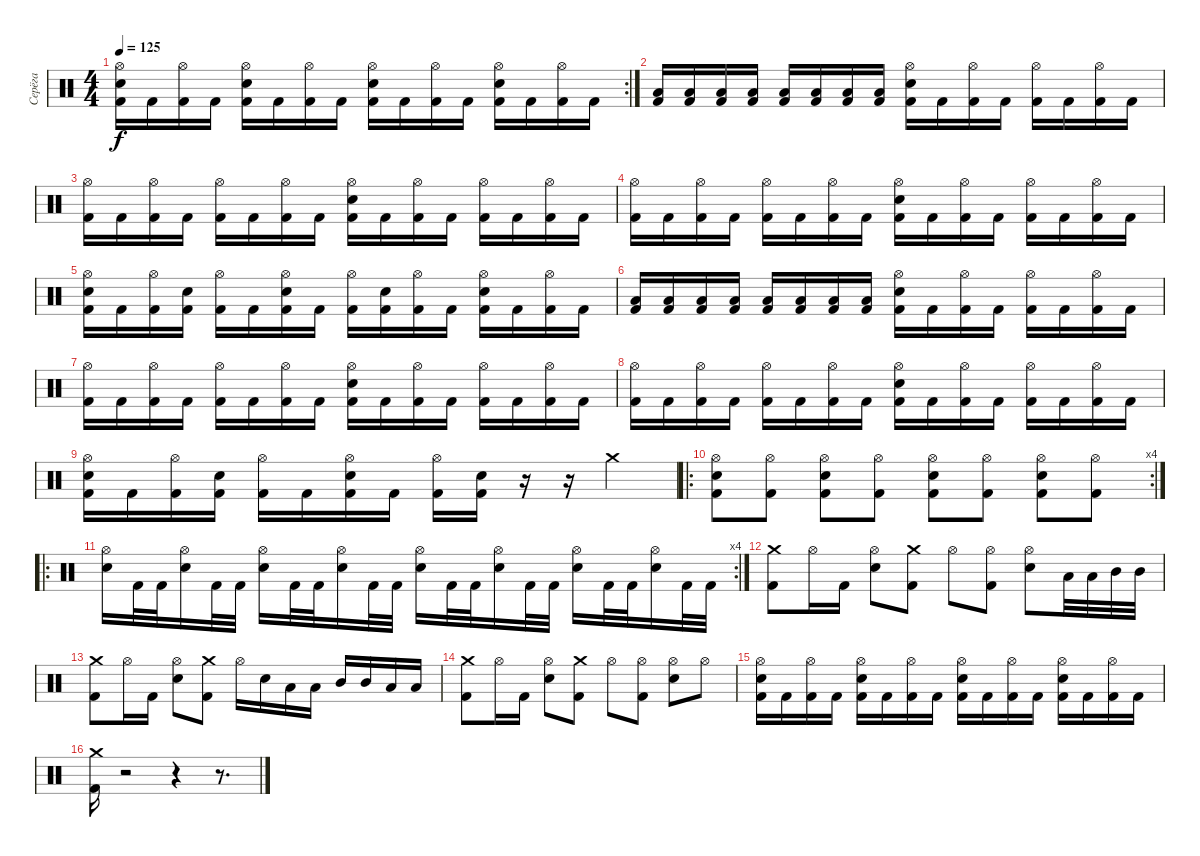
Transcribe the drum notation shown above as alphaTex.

\track ("Серёга" "Серёга") {instrument percussion}
\staff {score}
\articulation defaults
\rc 2
\ts (4 4)
\tempo 125
\clef neutral
\ks c
("Hi-Hat (open)" "Electric Snare (hit)" "Kick (hit) 2").16{dy f} "Kick (hit) 2".16 ("Hi-Hat (open)" "Kick (hit) 2").16 "Kick (hit) 2".16 ("Hi-Hat (open)" "Electric Snare (hit)" "Kick (hit) 2").16 "Kick (hit) 2".16 ("Hi-Hat (open)" "Kick (hit) 2").16 "Kick (hit) 2".16 ("Hi-Hat (open)" "Electric Snare (hit)" "Kick (hit) 2").16 "Kick (hit) 2".16 ("Hi-Hat (open)" "Kick (hit) 2").16 "Kick (hit) 2".16 ("Hi-Hat (open)" "Electric Snare (hit)" "Kick (hit) 2").16 "Kick (hit) 2".16 ("Hi-Hat (open)" "Kick (hit) 2").16 "Kick (hit) 2".16 |
("Kick (hit) 2" "Low Tom (hit)").16 ("Kick (hit) 2" "Low Tom (hit)").16 ("Kick (hit) 2" "Low Tom (hit)").16 ("Kick (hit) 2" "Low Tom (hit)").16 ("Kick (hit) 2" "Low Tom (hit)").16 ("Kick (hit) 2" "Low Tom (hit)").16 ("Kick (hit) 2" "Low Tom (hit)").16 ("Kick (hit) 2" "Low Tom (hit)").16 ("Kick (hit) 2" "Electric Snare (hit)" "Hi-Hat (open)").16 "Kick (hit) 2".16 ("Kick (hit) 2" "Hi-Hat (open)").16 "Kick (hit) 2".16 ("Kick (hit) 2" "Hi-Hat (open)").16 "Kick (hit) 2".16 ("Kick (hit) 2" "Hi-Hat (open)").16 "Kick (hit) 2".16 |
("Kick (hit) 2" "Hi-Hat (open)").16 "Kick (hit) 2".16 ("Kick (hit) 2" "Hi-Hat (open)").16 "Kick (hit) 2".16 ("Kick (hit) 2" "Hi-Hat (open)").16 "Kick (hit) 2".16 ("Kick (hit) 2" "Hi-Hat (open)").16 "Kick (hit) 2".16 ("Kick (hit) 2" "Electric Snare (hit)" "Hi-Hat (open)").16 "Kick (hit) 2".16 ("Kick (hit) 2" "Hi-Hat (open)").16 "Kick (hit) 2".16 ("Kick (hit) 2" "Hi-Hat (open)").16 "Kick (hit) 2".16 ("Kick (hit) 2" "Hi-Hat (open)").16 "Kick (hit) 2".16 |
("Kick (hit) 2" "Hi-Hat (open)").16 "Kick (hit) 2".16 ("Kick (hit) 2" "Hi-Hat (open)").16 "Kick (hit) 2".16 ("Kick (hit) 2" "Hi-Hat (open)").16 "Kick (hit) 2".16 ("Kick (hit) 2" "Hi-Hat (open)").16 "Kick (hit) 2".16 ("Kick (hit) 2" "Electric Snare (hit)" "Hi-Hat (open)").16 "Kick (hit) 2".16 ("Kick (hit) 2" "Hi-Hat (open)").16 "Kick (hit) 2".16 ("Kick (hit) 2" "Hi-Hat (open)").16 "Kick (hit) 2".16 ("Kick (hit) 2" "Hi-Hat (open)").16 "Kick (hit) 2".16 |
("Kick (hit) 2" "Electric Snare (hit)" "Hi-Hat (open)").16 "Kick (hit) 2".16 ("Kick (hit) 2" "Hi-Hat (open)").16 ("Kick (hit) 2" "Electric Snare (hit)").16 ("Kick (hit) 2" "Hi-Hat (open)").16 "Kick (hit) 2".16 ("Kick (hit) 2" "Electric Snare (hit)" "Hi-Hat (open)").16 "Kick (hit) 2".16 ("Kick (hit) 2" "Hi-Hat (open)").16 ("Kick (hit) 2" "Electric Snare (hit)").16 ("Kick (hit) 2" "Hi-Hat (open)").16 "Kick (hit) 2".16 ("Kick (hit) 2" "Electric Snare (hit)" "Hi-Hat (open)").16 "Kick (hit) 2".16 ("Kick (hit) 2" "Hi-Hat (open)").16 "Kick (hit) 2".16 |
("Kick (hit) 2" "Low Tom (hit)").16 ("Kick (hit) 2" "Low Tom (hit)").16 ("Kick (hit) 2" "Low Tom (hit)").16 ("Kick (hit) 2" "Low Tom (hit)").16 ("Kick (hit) 2" "Low Tom (hit)").16 ("Kick (hit) 2" "Low Tom (hit)").16 ("Kick (hit) 2" "Low Tom (hit)").16 ("Kick (hit) 2" "Low Tom (hit)").16 ("Kick (hit) 2" "Electric Snare (hit)" "Hi-Hat (open)").16 "Kick (hit) 2".16 ("Kick (hit) 2" "Hi-Hat (open)").16 "Kick (hit) 2".16 ("Kick (hit) 2" "Hi-Hat (open)").16 "Kick (hit) 2".16 ("Kick (hit) 2" "Hi-Hat (open)").16 "Kick (hit) 2".16 |
("Kick (hit) 2" "Hi-Hat (open)").16 "Kick (hit) 2".16 ("Kick (hit) 2" "Hi-Hat (open)").16 "Kick (hit) 2".16 ("Kick (hit) 2" "Hi-Hat (open)").16 "Kick (hit) 2".16 ("Kick (hit) 2" "Hi-Hat (open)").16 "Kick (hit) 2".16 ("Kick (hit) 2" "Electric Snare (hit)" "Hi-Hat (open)").16 "Kick (hit) 2".16 ("Kick (hit) 2" "Hi-Hat (open)").16 "Kick (hit) 2".16 ("Kick (hit) 2" "Hi-Hat (open)").16 "Kick (hit) 2".16 ("Kick (hit) 2" "Hi-Hat (open)").16 "Kick (hit) 2".16 |
("Kick (hit) 2" "Hi-Hat (open)").16 "Kick (hit) 2".16 ("Kick (hit) 2" "Hi-Hat (open)").16 "Kick (hit) 2".16 ("Kick (hit) 2" "Hi-Hat (open)").16 "Kick (hit) 2".16 ("Kick (hit) 2" "Hi-Hat (open)").16 "Kick (hit) 2".16 ("Kick (hit) 2" "Electric Snare (hit)" "Hi-Hat (open)").16 "Kick (hit) 2".16 ("Kick (hit) 2" "Hi-Hat (open)").16 "Kick (hit) 2".16 ("Kick (hit) 2" "Hi-Hat (open)").16 "Kick (hit) 2".16 ("Kick (hit) 2" "Hi-Hat (open)").16 "Kick (hit) 2".16 |
("Kick (hit) 2" "Electric Snare (hit)" "Hi-Hat (open)").16 "Kick (hit) 2".16 ("Kick (hit) 2" "Hi-Hat (open)").16 ("Kick (hit) 2" "Electric Snare (hit)").16 ("Kick (hit) 2" "Hi-Hat (open)").16 "Kick (hit) 2".16 ("Kick (hit) 2" "Electric Snare (hit)" "Hi-Hat (open)").16 "Kick (hit) 2".16 ("Kick (hit) 2" "Hi-Hat (open)").16 ("Kick (hit) 2" "Electric Snare (hit)").16 r.16 r.16 "Crash medium (hit)".4 |
\ro
\rc 4
("Hi-Hat (open)" "Electric Snare (hit)" "Kick (hit) 2").8 ("Hi-Hat (open)" "Kick (hit) 2").8 ("Hi-Hat (open)" "Electric Snare (hit)" "Kick (hit) 2").8 ("Hi-Hat (open)" "Kick (hit) 2").8 ("Hi-Hat (open)" "Electric Snare (hit)" "Kick (hit) 2").8 ("Hi-Hat (open)" "Kick (hit) 2").8 ("Hi-Hat (open)" "Electric Snare (hit)" "Kick (hit) 2").8 ("Hi-Hat (open)" "Kick (hit) 2").8 |
\ro
\rc 4
("Hi-Hat (open)" "Electric Snare (hit)").16 "Kick (hit) 2".32 "Kick (hit) 2".32 ("Hi-Hat (open)" "Electric Snare (hit)").16 "Kick (hit) 2".32 "Kick (hit) 2".32 ("Hi-Hat (open)" "Electric Snare (hit)").16 "Kick (hit) 2".32 "Kick (hit) 2".32 ("Hi-Hat (open)" "Electric Snare (hit)").16 "Kick (hit) 2".32 "Kick (hit) 2".32 ("Hi-Hat (open)" "Electric Snare (hit)").16 "Kick (hit) 2".32 "Kick (hit) 2".32 ("Hi-Hat (open)" "Electric Snare (hit)").16 "Kick (hit) 2".32 "Kick (hit) 2".32 ("Hi-Hat (open)" "Electric Snare (hit)").16 "Kick (hit) 2".32 "Kick (hit) 2".32 ("Hi-Hat (open)" "Electric Snare (hit)").16 "Kick (hit) 2".32 "Kick (hit) 2".32 |
("Crash medium (hit)" "Kick (hit) 2").8 "Hi-Hat (open)".16 "Kick (hit) 2".16 ("Hi-Hat (open)" "Electric Snare (hit)").8 ("Crash medium (hit)" "Kick (hit) 2").8 "Hi-Hat (open)".8 ("Hi-Hat (open)" "Kick (hit) 2").8 ("Hi-Hat (open)" "Electric Snare (hit)").8 "Low Tom (hit)".32 "Low Tom (hit)".32 "Mid Tom (hit)".32 "Mid Tom (hit)".32 |
("Crash medium (hit)" "Kick (hit) 2").8 "Hi-Hat (open)".16 "Kick (hit) 2".16 ("Hi-Hat (open)" "Electric Snare (hit)").8 ("Crash medium (hit)" "Kick (hit) 2").8 "Hi-Hat (open)".16 "Electric Snare (hit)".16 "Low Tom (hit)".16 "Low Tom (hit)".16 "Mid Tom (hit)".16 "Mid Tom (hit)".16 "Low Floor Tom (hit)".16 "Low Floor Tom (hit)".16 |
("Crash medium (hit)" "Kick (hit) 2").8 "Hi-Hat (open)".16 "Kick (hit) 2".16 ("Hi-Hat (open)" "Electric Snare (hit)").8 ("Crash medium (hit)" "Kick (hit) 2").8 "Hi-Hat (open)".8 ("Hi-Hat (open)" "Kick (hit) 2").8 ("Hi-Hat (open)" "Electric Snare (hit)").8 "Hi-Hat (open)".8 |
("Hi-Hat (open)" "Electric Snare (hit)" "Kick (hit) 2").16 "Kick (hit) 2".16 ("Hi-Hat (open)" "Kick (hit) 2").16 "Kick (hit) 2".16 ("Hi-Hat (open)" "Electric Snare (hit)" "Kick (hit) 2").16 "Kick (hit) 2".16 ("Hi-Hat (open)" "Kick (hit) 2").16 "Kick (hit) 2".16 ("Hi-Hat (open)" "Electric Snare (hit)" "Kick (hit) 2").16 "Kick (hit) 2".16 ("Hi-Hat (open)" "Kick (hit) 2").16 "Kick (hit) 2".16 ("Hi-Hat (open)" "Electric Snare (hit)" "Kick (hit) 2").16 "Kick (hit) 2".16 ("Hi-Hat (open)" "Kick (hit) 2").16 "Kick (hit) 2".16 |
("Crash medium (hit)" "Kick (hit) 2").16 r.2 r.4 r.8{d}
